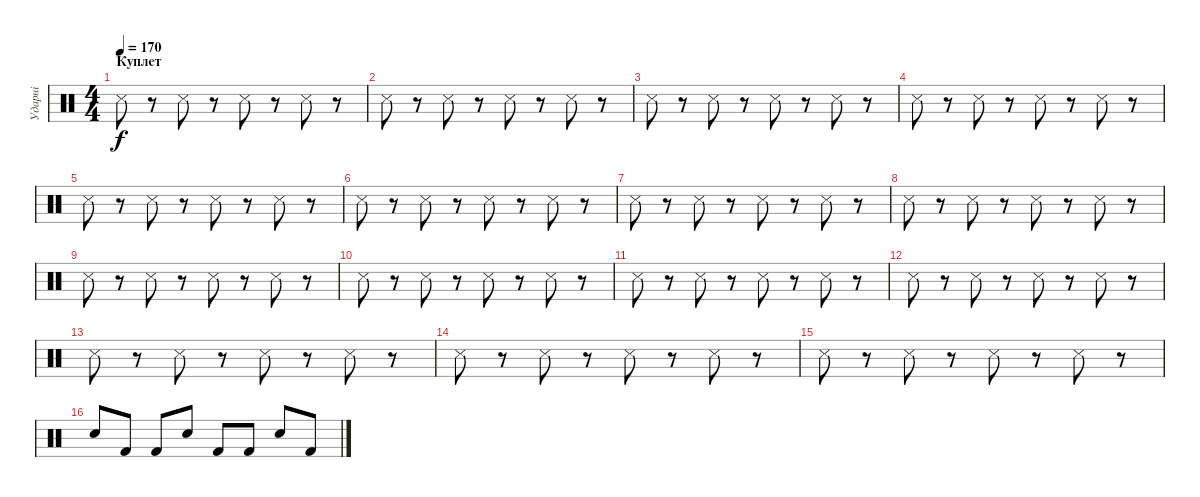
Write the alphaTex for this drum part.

\track ("Ударні" "Ударні") {instrument percussion}
\staff {score}
\articulation defaults
\ts (4 4)
\section ("" "Куплет")
\tempo 170
\clef neutral
\ks c "Snare (side stick) 3".8{dy f}
r.8 "Snare (side stick) 3".8 r.8 "Snare (side stick) 3".8 r.8 "Snare (side stick) 3".8 r.8 |
"Snare (side stick) 3".8 r.8 "Snare (side stick) 3".8 r.8 "Snare (side stick) 3".8 r.8 "Snare (side stick) 3".8 r.8 |
"Snare (side stick) 3".8 r.8 "Snare (side stick) 3".8 r.8 "Snare (side stick) 3".8 r.8 "Snare (side stick) 3".8 r.8 |
"Snare (side stick) 3".8 r.8 "Snare (side stick) 3".8 r.8 "Snare (side stick) 3".8 r.8 "Snare (side stick) 3".8 r.8 |
"Snare (side stick) 3".8 r.8 "Snare (side stick) 3".8 r.8 "Snare (side stick) 3".8 r.8 "Snare (side stick) 3".8 r.8 |
"Snare (side stick) 3".8 r.8 "Snare (side stick) 3".8 r.8 "Snare (side stick) 3".8 r.8 "Snare (side stick) 3".8 r.8 |
"Snare (side stick) 3".8 r.8 "Snare (side stick) 3".8 r.8 "Snare (side stick) 3".8 r.8 "Snare (side stick) 3".8 r.8 |
"Snare (side stick) 3".8 r.8 "Snare (side stick) 3".8 r.8 "Snare (side stick) 3".8 r.8 "Snare (side stick) 3".8 r.8 |
"Snare (side stick) 3".8 r.8 "Snare (side stick) 3".8 r.8 "Snare (side stick) 3".8 r.8 "Snare (side stick) 3".8 r.8 |
"Snare (side stick) 3".8 r.8 "Snare (side stick) 3".8 r.8 "Snare (side stick) 3".8 r.8 "Snare (side stick) 3".8 r.8 |
"Snare (side stick) 3".8 r.8 "Snare (side stick) 3".8 r.8 "Snare (side stick) 3".8 r.8 "Snare (side stick) 3".8 r.8 |
"Snare (side stick) 3".8 r.8 "Snare (side stick) 3".8 r.8 "Snare (side stick) 3".8 r.8 "Snare (side stick) 3".8 r.8 |
"Snare (side stick) 3".8 r.8 "Snare (side stick) 3".8 r.8 "Snare (side stick) 3".8 r.8 "Snare (side stick) 3".8 r.8 |
"Snare (side stick) 3".8 r.8 "Snare (side stick) 3".8 r.8 "Snare (side stick) 3".8 r.8 "Snare (side stick) 3".8 r.8 |
"Snare (side stick) 3".8 r.8 "Snare (side stick) 3".8 r.8 "Snare (side stick) 3".8 r.8 "Snare (side stick) 3".8 r.8 |
"Electric Snare (hit)".8 "Kick (hit) 2".8 "Kick (hit) 2".8 "Electric Snare (hit)".8 "Kick (hit) 2".8 "Kick (hit) 2".8 "Electric Snare (hit)".8 "Kick (hit) 2".8
